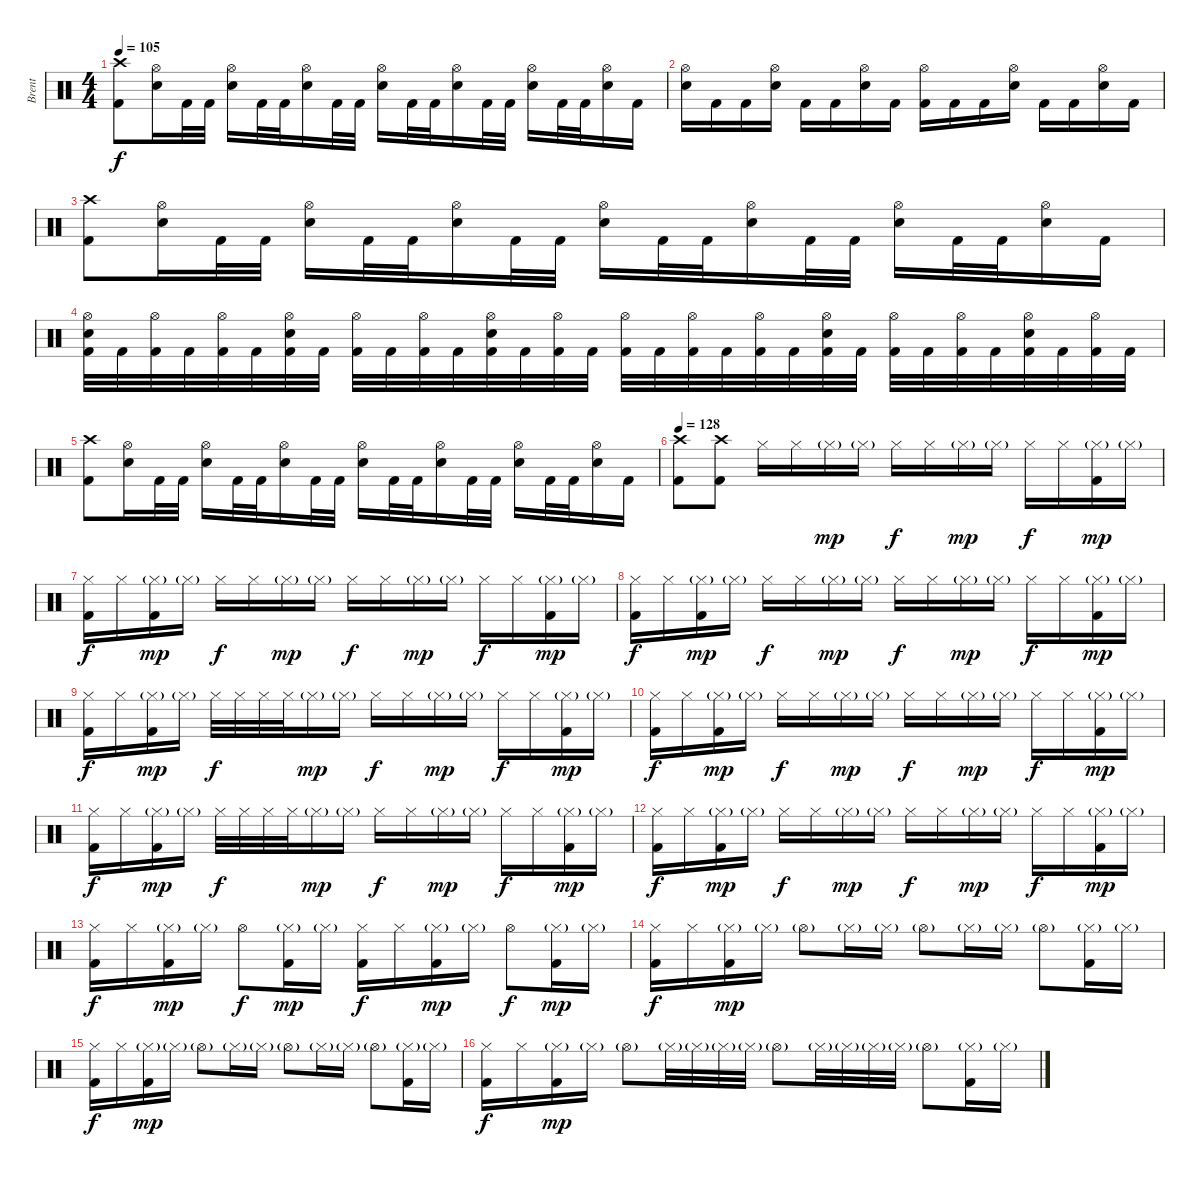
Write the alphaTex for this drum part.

\track ("Brent" "Brent") {instrument percussion}
\staff {score}
\articulation defaults
\ts (4 4)
\tempo 105
\clef neutral
\ks c
("Crash high (hit)" "Kick (hit) 2").8{dy f} ("Hi-Hat (open)" "Snare (hit) 2").16 "Kick (hit) 2".32 "Kick (hit) 2".32 ("Hi-Hat (open)" "Snare (hit) 2").16 "Kick (hit) 2".32 "Kick (hit) 2".32 ("Hi-Hat (open)" "Snare (hit) 2").16 "Kick (hit) 2".32 "Kick (hit) 2".32 ("Hi-Hat (open)" "Snare (hit) 2").16 "Kick (hit) 2".32 "Kick (hit) 2".32 ("Hi-Hat (open)" "Snare (hit) 2").16 "Kick (hit) 2".32 "Kick (hit) 2".32 ("Hi-Hat (open)" "Snare (hit) 2").16 "Kick (hit) 2".32 "Kick (hit) 2".32 ("Hi-Hat (open)" "Snare (hit) 2").16 "Kick (hit) 2".16 |
("Hi-Hat (open)" "Snare (hit) 2").16 "Kick (hit) 2".16 "Kick (hit) 2".16 ("Hi-Hat (open)" "Snare (hit) 2").16 "Kick (hit) 2".16 "Kick (hit) 2".16 ("Hi-Hat (open)" "Snare (hit) 2").16 "Kick (hit) 2".16 ("Hi-Hat (open)" "Kick (hit) 2").16 "Kick (hit) 2".16 "Kick (hit) 2".16 ("Hi-Hat (open)" "Snare (hit) 2").16 "Kick (hit) 2".16 "Kick (hit) 2".16 ("Hi-Hat (open)" "Snare (hit) 2").16 "Kick (hit) 2".16 |
("Crash high (hit)" "Kick (hit) 2").8 ("Hi-Hat (open)" "Snare (hit) 2").16 "Kick (hit) 2".32 "Kick (hit) 2".32 ("Hi-Hat (open)" "Snare (hit) 2").16 "Kick (hit) 2".32 "Kick (hit) 2".32 ("Hi-Hat (open)" "Snare (hit) 2").16 "Kick (hit) 2".32 "Kick (hit) 2".32 ("Hi-Hat (open)" "Snare (hit) 2").16 "Kick (hit) 2".32 "Kick (hit) 2".32 ("Hi-Hat (open)" "Snare (hit) 2").16 "Kick (hit) 2".32 "Kick (hit) 2".32 ("Hi-Hat (open)" "Snare (hit) 2").16 "Kick (hit) 2".32 "Kick (hit) 2".32 ("Hi-Hat (open)" "Snare (hit) 2").16 "Kick (hit) 2".16 |
("Hi-Hat (open)" "Snare (hit) 2" "Kick (hit) 2").32 "Kick (hit) 2".32 ("Hi-Hat (open)" "Kick (hit) 2").32 "Kick (hit) 2".32 ("Hi-Hat (open)" "Kick (hit) 2").32 "Kick (hit) 2".32 ("Hi-Hat (open)" "Snare (hit) 2" "Kick (hit) 2").32 "Kick (hit) 2".32 ("Hi-Hat (open)" "Kick (hit) 2").32 "Kick (hit) 2".32 ("Hi-Hat (open)" "Kick (hit) 2").32 "Kick (hit) 2".32 ("Hi-Hat (open)" "Snare (hit) 2" "Kick (hit) 2").32 "Kick (hit) 2".32 ("Hi-Hat (open)" "Kick (hit) 2").32 "Kick (hit) 2".32 ("Hi-Hat (open)" "Kick (hit) 2").32 "Kick (hit) 2".32 ("Hi-Hat (open)" "Kick (hit) 2").32 "Kick (hit) 2".32 ("Hi-Hat (open)" "Kick (hit) 2").32 "Kick (hit) 2".32 ("Hi-Hat (open)" "Snare (hit) 2" "Kick (hit) 2").32 "Kick (hit) 2".32 ("Hi-Hat (open)" "Kick (hit) 2").32 "Kick (hit) 2".32 ("Hi-Hat (open)" "Kick (hit) 2").32 "Kick (hit) 2".32 ("Hi-Hat (open)" "Snare (hit) 2" "Kick (hit) 2").32 "Kick (hit) 2".32 ("Hi-Hat (open)" "Kick (hit) 2").32 "Kick (hit) 2".32 |
("Crash high (hit)" "Kick (hit) 2").8 ("Hi-Hat (open)" "Snare (hit) 2").16 "Kick (hit) 2".32 "Kick (hit) 2".32 ("Hi-Hat (open)" "Snare (hit) 2").16 "Kick (hit) 2".32 "Kick (hit) 2".32 ("Hi-Hat (open)" "Snare (hit) 2").16 "Kick (hit) 2".32 "Kick (hit) 2".32 ("Hi-Hat (open)" "Snare (hit) 2").16 "Kick (hit) 2".32 "Kick (hit) 2".32 ("Hi-Hat (open)" "Snare (hit) 2").16 "Kick (hit) 2".32 "Kick (hit) 2".32 ("Hi-Hat (open)" "Snare (hit) 2").16 "Kick (hit) 2".32 "Kick (hit) 2".32 ("Hi-Hat (open)" "Snare (hit) 2").16 "Kick (hit) 2".16 |
\tempo 128
("Crash high (hit)" "Kick (hit) 2").8 ("Crash high (hit)" "Kick (hit) 2").8 "Hi-Hat (closed)".16 "Hi-Hat (closed)".16 "Hi-Hat (closed)"{g}.16{dy mp} "Hi-Hat (closed)"{g}.16 "Hi-Hat (closed)".16{dy f} "Hi-Hat (closed)".16 "Hi-Hat (closed)"{g}.16{dy mp} "Hi-Hat (closed)"{g}.16 "Hi-Hat (closed)".16{dy f} "Hi-Hat (closed)".16 ("Hi-Hat (closed)"{g} "Kick (hit) 2").16{dy mp} "Hi-Hat (closed)"{g}.16 |
("Hi-Hat (closed)" "Kick (hit) 2").16{dy f} "Hi-Hat (closed)".16 ("Hi-Hat (closed)"{g} "Kick (hit) 2").16{dy mp} "Hi-Hat (closed)"{g}.16 "Hi-Hat (closed)".16{dy f} "Hi-Hat (closed)".16 "Hi-Hat (closed)"{g}.16{dy mp} "Hi-Hat (closed)"{g}.16 "Hi-Hat (closed)".16{dy f} "Hi-Hat (closed)".16 "Hi-Hat (closed)"{g}.16{dy mp} "Hi-Hat (closed)"{g}.16 "Hi-Hat (closed)".16{dy f} "Hi-Hat (closed)".16 ("Hi-Hat (closed)"{g} "Kick (hit) 2").16{dy mp} "Hi-Hat (closed)"{g}.16 |
("Hi-Hat (closed)" "Kick (hit) 2").16{dy f} "Hi-Hat (closed)".16 ("Hi-Hat (closed)"{g} "Kick (hit) 2").16{dy mp} "Hi-Hat (closed)"{g}.16 "Hi-Hat (closed)".16{dy f} "Hi-Hat (closed)".16 "Hi-Hat (closed)"{g}.16{dy mp} "Hi-Hat (closed)"{g}.16 "Hi-Hat (closed)".16{dy f} "Hi-Hat (closed)".16 "Hi-Hat (closed)"{g}.16{dy mp} "Hi-Hat (closed)"{g}.16 "Hi-Hat (closed)".16{dy f} "Hi-Hat (closed)".16 ("Hi-Hat (closed)"{g} "Kick (hit) 2").16{dy mp} "Hi-Hat (closed)"{g}.16 |
("Hi-Hat (closed)" "Kick (hit) 2").16{dy f} "Hi-Hat (closed)".16 ("Hi-Hat (closed)"{g} "Kick (hit) 2").16{dy mp} "Hi-Hat (closed)"{g}.16 "Hi-Hat (closed)".32{dy f} "Hi-Hat (closed)".32 "Hi-Hat (closed)".32 "Hi-Hat (closed)".32 "Hi-Hat (closed)"{g}.16{dy mp} "Hi-Hat (closed)"{g}.16 "Hi-Hat (closed)".16{dy f} "Hi-Hat (closed)".16 "Hi-Hat (closed)"{g}.16{dy mp} "Hi-Hat (closed)"{g}.16 "Hi-Hat (closed)".16{dy f} "Hi-Hat (closed)".16 ("Hi-Hat (closed)"{g} "Kick (hit) 2").16{dy mp} "Hi-Hat (closed)"{g}.16 |
("Hi-Hat (closed)" "Kick (hit) 2").16{dy f} "Hi-Hat (closed)".16 ("Hi-Hat (closed)"{g} "Kick (hit) 2").16{dy mp} "Hi-Hat (closed)"{g}.16 "Hi-Hat (closed)".16{dy f} "Hi-Hat (closed)".16 "Hi-Hat (closed)"{g}.16{dy mp} "Hi-Hat (closed)"{g}.16 "Hi-Hat (closed)".16{dy f} "Hi-Hat (closed)".16 "Hi-Hat (closed)"{g}.16{dy mp} "Hi-Hat (closed)"{g}.16 "Hi-Hat (closed)".16{dy f} "Hi-Hat (closed)".16 ("Hi-Hat (closed)"{g} "Kick (hit) 2").16{dy mp} "Hi-Hat (closed)"{g}.16 |
("Hi-Hat (closed)" "Kick (hit) 2").16{dy f} "Hi-Hat (closed)".16 ("Hi-Hat (closed)"{g} "Kick (hit) 2").16{dy mp} "Hi-Hat (closed)"{g}.16 "Hi-Hat (closed)".32{dy f} "Hi-Hat (closed)".32 "Hi-Hat (closed)".32 "Hi-Hat (closed)".32 "Hi-Hat (closed)"{g}.16{dy mp} "Hi-Hat (closed)"{g}.16 "Hi-Hat (closed)".16{dy f} "Hi-Hat (closed)".16 "Hi-Hat (closed)"{g}.16{dy mp} "Hi-Hat (closed)"{g}.16 "Hi-Hat (closed)".16{dy f} "Hi-Hat (closed)".16 ("Hi-Hat (closed)"{g} "Kick (hit) 2").16{dy mp} "Hi-Hat (closed)"{g}.16 |
("Hi-Hat (closed)" "Kick (hit) 2").16{dy f} "Hi-Hat (closed)".16 ("Hi-Hat (closed)"{g} "Kick (hit) 2").16{dy mp} "Hi-Hat (closed)"{g}.16 "Hi-Hat (closed)".16{dy f} "Hi-Hat (closed)".16 "Hi-Hat (closed)"{g}.16{dy mp} "Hi-Hat (closed)"{g}.16 "Hi-Hat (closed)".16{dy f} "Hi-Hat (closed)".16 "Hi-Hat (closed)"{g}.16{dy mp} "Hi-Hat (closed)"{g}.16 "Hi-Hat (closed)".16{dy f} "Hi-Hat (closed)".16 ("Hi-Hat (closed)"{g} "Kick (hit) 2").16{dy mp} "Hi-Hat (closed)"{g}.16 |
("Hi-Hat (closed)" "Kick (hit) 2").16{dy f} "Hi-Hat (closed)".16 ("Hi-Hat (closed)"{g} "Kick (hit) 2").16{dy mp} "Hi-Hat (closed)"{g}.16 "Hi-Hat (open)".8{dy f} ("Hi-Hat (closed)"{g} "Kick (hit) 2").16{dy mp} "Hi-Hat (closed)"{g}.16 ("Hi-Hat (closed)" "Kick (hit) 2").16{dy f} "Hi-Hat (closed)".16 ("Hi-Hat (closed)"{g} "Kick (hit) 2").16{dy mp} "Hi-Hat (closed)"{g}.16 "Hi-Hat (open)".8{dy f} ("Hi-Hat (closed)"{g} "Kick (hit) 2").16{dy mp} "Hi-Hat (closed)"{g}.16 |
("Hi-Hat (closed)" "Kick (hit) 2").16{dy f} "Hi-Hat (closed)".16 ("Hi-Hat (closed)"{g} "Kick (hit) 2").16{dy mp} "Hi-Hat (closed)"{g}.16 "Hi-Hat (open)"{g}.8 "Hi-Hat (closed)"{g}.16 "Hi-Hat (closed)"{g}.16 "Hi-Hat (open)"{g}.8 "Hi-Hat (closed)"{g}.16 "Hi-Hat (closed)"{g}.16 "Hi-Hat (open)"{g}.8 ("Hi-Hat (closed)"{g} "Kick (hit) 2").16 "Hi-Hat (closed)"{g}.16 |
("Hi-Hat (closed)" "Kick (hit) 2").16{dy f} "Hi-Hat (closed)".16 ("Hi-Hat (closed)"{g} "Kick (hit) 2").16{dy mp} "Hi-Hat (closed)"{g}.16 "Hi-Hat (open)"{g}.8 "Hi-Hat (closed)"{g}.16 "Hi-Hat (closed)"{g}.16 "Hi-Hat (open)"{g}.8 "Hi-Hat (closed)"{g}.16 "Hi-Hat (closed)"{g}.16 "Hi-Hat (open)"{g}.8 ("Hi-Hat (closed)"{g} "Kick (hit) 2").16 "Hi-Hat (closed)"{g}.16 |
("Hi-Hat (closed)" "Kick (hit) 2").16{dy f} "Hi-Hat (closed)".16 ("Hi-Hat (closed)"{g} "Kick (hit) 2").16{dy mp} "Hi-Hat (closed)"{g}.16 "Hi-Hat (open)"{g}.8 "Hi-Hat (closed)"{g}.32 "Hi-Hat (closed)"{g}.32 "Hi-Hat (closed)"{g}.32 "Hi-Hat (closed)"{g}.32 "Hi-Hat (open)"{g}.8 "Hi-Hat (closed)"{g}.32 "Hi-Hat (closed)"{g}.32 "Hi-Hat (closed)"{g}.32 "Hi-Hat (closed)"{g}.32 "Hi-Hat (open)"{g}.8 ("Hi-Hat (closed)"{g} "Kick (hit) 2").16 "Hi-Hat (closed)"{g}.16
